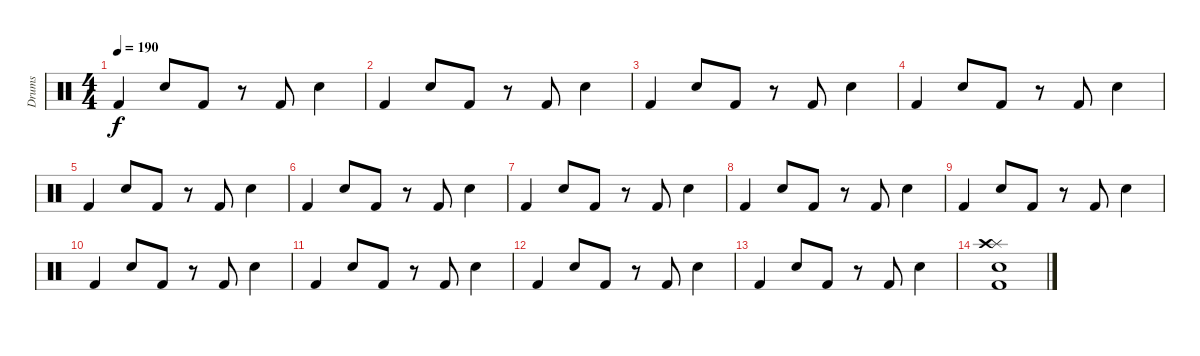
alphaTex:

\track ("Drums" "Drums") {instrument percussion}
\staff {score}
\articulation defaults
\ts (4 4)
\tempo 190
\clef neutral
\ks c "Kick (hit) 2".4{dy f} "Electric Snare (hit)".8 "Kick (hit) 2".8
r.8 "Kick (hit) 2".8 "Electric Snare (hit)".4 |
"Kick (hit) 2".4 "Electric Snare (hit)".8 "Kick (hit) 2".8 r.8 "Kick (hit) 2".8 "Electric Snare (hit)".4 |
"Kick (hit) 2".4 "Electric Snare (hit)".8 "Kick (hit) 2".8 r.8 "Kick (hit) 2".8 "Electric Snare (hit)".4 |
"Kick (hit) 2".4 "Electric Snare (hit)".8 "Kick (hit) 2".8 r.8 "Kick (hit) 2".8 "Electric Snare (hit)".4 |
"Kick (hit) 2".4 "Electric Snare (hit)".8 "Kick (hit) 2".8 r.8 "Kick (hit) 2".8 "Electric Snare (hit)".4 |
"Kick (hit) 2".4 "Electric Snare (hit)".8 "Kick (hit) 2".8 r.8 "Kick (hit) 2".8 "Electric Snare (hit)".4 |
"Kick (hit) 2".4 "Electric Snare (hit)".8 "Kick (hit) 2".8 r.8 "Kick (hit) 2".8 "Electric Snare (hit)".4 |
"Kick (hit) 2".4 "Electric Snare (hit)".8 "Kick (hit) 2".8 r.8 "Kick (hit) 2".8 "Electric Snare (hit)".4 |
"Kick (hit) 2".4 "Electric Snare (hit)".8 "Kick (hit) 2".8 r.8 "Kick (hit) 2".8 "Electric Snare (hit)".4 |
"Kick (hit) 2".4 "Electric Snare (hit)".8 "Kick (hit) 2".8 r.8 "Kick (hit) 2".8 "Electric Snare (hit)".4 |
"Kick (hit) 2".4 "Electric Snare (hit)".8 "Kick (hit) 2".8 r.8 "Kick (hit) 2".8 "Electric Snare (hit)".4 |
"Kick (hit) 2".4 "Electric Snare (hit)".8 "Kick (hit) 2".8 r.8 "Kick (hit) 2".8 "Electric Snare (hit)".4 |
"Kick (hit) 2".4 "Electric Snare (hit)".8 "Kick (hit) 2".8 r.8 "Kick (hit) 2".8 "Electric Snare (hit)".4 |
("Splash (hit)" "Crash high (hit)" "Electric Snare (hit)" "Kick (hit) 2").1
